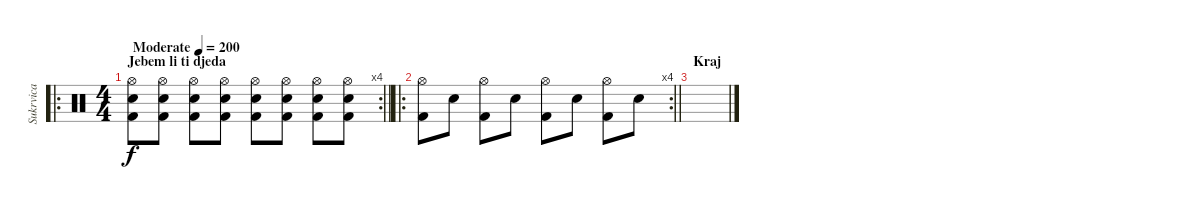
\track ("Sukrvica" "Sukrvica") {instrument percussion}
\staff {score}
\articulation defaults
\ro
\rc 4
\ts (4 4)
\section ("" "Jebem li ti djeda")
\tempo (200 "Moderate")
\clef neutral
\barLineRight lightlight
\ks c
("Hi-Hat (open)" "Electric Snare (hit)" "Kick (hit) 2").8{dy f} ("Hi-Hat (open)" "Electric Snare (hit)" "Kick (hit) 2").8 ("Hi-Hat (open)" "Electric Snare (hit)" "Kick (hit) 2").8 ("Hi-Hat (open)" "Electric Snare (hit)" "Kick (hit) 2").8 ("Hi-Hat (open)" "Electric Snare (hit)" "Kick (hit) 2").8 ("Hi-Hat (open)" "Electric Snare (hit)" "Kick (hit) 2").8 ("Hi-Hat (open)" "Electric Snare (hit)" "Kick (hit) 2").8 ("Hi-Hat (open)" "Electric Snare (hit)" "Kick (hit) 2").8 |
\ro
\rc 4
\barLineRight lightlight
("Hi-Hat (open)" "Kick (hit) 2").8 "Electric Snare (hit)".8 ("Hi-Hat (open)" "Kick (hit) 2").8 "Electric Snare (hit)".8 ("Hi-Hat (open)" "Kick (hit) 2").8 "Electric Snare (hit)".8 ("Hi-Hat (open)" "Kick (hit) 2").8 "Electric Snare (hit)".8 |
\section ("" "Kraj")
